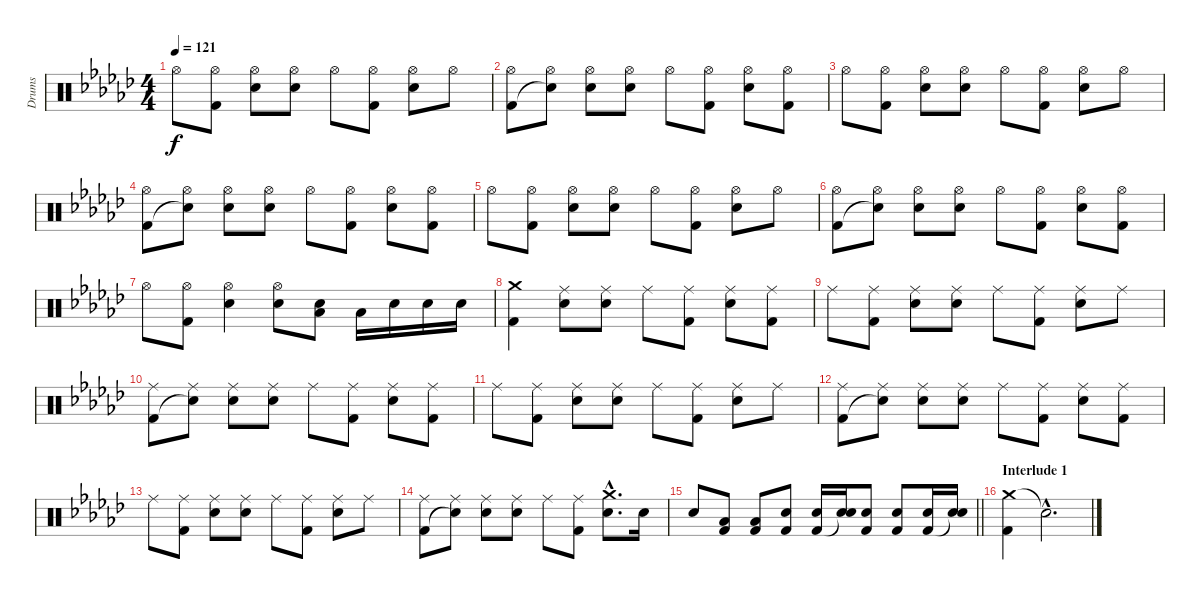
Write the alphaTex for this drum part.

\track ("Drums" "Drums") {instrument percussion}
\staff {score}
\articulation defaults
\ts (4 4)
\tempo 121
\clef neutral
\ks ebminor "Hi-Hat (open)".8{dy f}
("Hi-Hat (open)" "Kick (hit) 2").8 ("Hi-Hat (open)" "Electric Snare (hit)").8 ("Hi-Hat (open)" "Electric Snare (hit)").8 "Hi-Hat (open)".8 ("Hi-Hat (open)" "Kick (hit) 2").8 ("Hi-Hat (open)" "Electric Snare (hit)").8 "Hi-Hat (open)".8 |
("Hi-Hat (open)" "Kick (hit) 2").8 ("Hi-Hat (open)" "Snare (hit)"{t}).8 ("Hi-Hat (open)" "Electric Snare (hit)").8 ("Hi-Hat (open)" "Electric Snare (hit)").8 "Hi-Hat (open)".8 ("Hi-Hat (open)" "Kick (hit) 2").8 ("Hi-Hat (open)" "Electric Snare (hit)").8 ("Hi-Hat (open)" "Kick (hit) 2").8 |
"Hi-Hat (open)".8 ("Hi-Hat (open)" "Kick (hit) 2").8 ("Hi-Hat (open)" "Electric Snare (hit)").8 ("Hi-Hat (open)" "Electric Snare (hit)").8 "Hi-Hat (open)".8 ("Hi-Hat (open)" "Kick (hit) 2").8 ("Hi-Hat (open)" "Electric Snare (hit)").8 "Hi-Hat (open)".8 |
("Hi-Hat (open)" "Kick (hit) 2").8 ("Hi-Hat (open)" "Snare (hit)"{t}).8 ("Hi-Hat (open)" "Electric Snare (hit)").8 ("Hi-Hat (open)" "Electric Snare (hit)").8 "Hi-Hat (open)".8 ("Hi-Hat (open)" "Kick (hit) 2").8 ("Hi-Hat (open)" "Electric Snare (hit)").8 ("Hi-Hat (open)" "Kick (hit) 2").8 |
"Hi-Hat (open)".8 ("Hi-Hat (open)" "Kick (hit) 2").8 ("Hi-Hat (open)" "Electric Snare (hit)").8 ("Hi-Hat (open)" "Electric Snare (hit)").8 "Hi-Hat (open)".8 ("Hi-Hat (open)" "Kick (hit) 2").8 ("Hi-Hat (open)" "Electric Snare (hit)").8 "Hi-Hat (open)".8 |
("Hi-Hat (open)" "Kick (hit) 2").8 ("Hi-Hat (open)" "Snare (hit)"{t}).8 ("Hi-Hat (open)" "Electric Snare (hit)").8 ("Hi-Hat (open)" "Electric Snare (hit)").8 "Hi-Hat (open)".8 ("Hi-Hat (open)" "Kick (hit) 2").8 ("Hi-Hat (open)" "Electric Snare (hit)").8 ("Hi-Hat (open)" "Kick (hit) 2").8 |
"Hi-Hat (open)".8 ("Hi-Hat (open)" "Kick (hit) 2").8 ("Hi-Hat (open)" "Electric Snare (hit)").4 ("Hi-Hat (open)" "Electric Snare (hit)").8 ("Electric Snare (hit)" "Low Tom (hit)").8 "Low Floor Tom (hit)".16 "Electric Snare (hit)".16 "Electric Snare (hit)".16 "Electric Snare (hit)".16 |
("Crash medium (hit)" "Kick (hit) 2").4 ("Ride (middle)" "Electric Snare (hit)").8 ("Ride (middle)" "Electric Snare (hit)").8 "Ride (middle)".8 ("Ride (middle)" "Kick (hit) 2").8 ("Ride (middle)" "Electric Snare (hit)").8 ("Ride (middle)" "Kick (hit) 2").8 |
"Ride (middle)".8 ("Ride (middle)" "Kick (hit) 2").8 ("Ride (middle)" "Electric Snare (hit)").8 ("Ride (middle)" "Electric Snare (hit)").8 "Ride (middle)".8 ("Ride (middle)" "Kick (hit) 2").8 ("Ride (middle)" "Electric Snare (hit)").8 "Ride (middle)".8 |
("Ride (middle)" "Kick (hit) 2").8 ("Ride (middle)" "Snare (hit)"{t}).8 ("Ride (middle)" "Electric Snare (hit)").8 ("Ride (middle)" "Electric Snare (hit)").8 "Ride (middle)".8 ("Ride (middle)" "Kick (hit) 2").8 ("Ride (middle)" "Electric Snare (hit)").8 ("Ride (middle)" "Kick (hit) 2").8 |
"Ride (middle)".8 ("Ride (middle)" "Kick (hit) 2").8 ("Ride (middle)" "Electric Snare (hit)").8 ("Ride (middle)" "Electric Snare (hit)").8 "Ride (middle)".8 ("Ride (middle)" "Kick (hit) 2").8 ("Ride (middle)" "Electric Snare (hit)").8 "Ride (middle)".8 |
("Ride (middle)" "Kick (hit) 2").8 ("Ride (middle)" "Snare (hit)"{t}).8 ("Ride (middle)" "Electric Snare (hit)").8 ("Ride (middle)" "Electric Snare (hit)").8 "Ride (middle)".8 ("Ride (middle)" "Kick (hit) 2").8 ("Ride (middle)" "Electric Snare (hit)").8 ("Ride (middle)" "Kick (hit) 2").8 |
"Ride (middle)".8 ("Ride (middle)" "Kick (hit) 2").8 ("Ride (middle)" "Electric Snare (hit)").8 ("Ride (middle)" "Electric Snare (hit)").8 "Ride (middle)".8 ("Ride (middle)" "Kick (hit) 2").8 ("Ride (middle)" "Electric Snare (hit)").8 "Ride (middle)".8 |
("Ride (middle)" "Kick (hit) 2").8 ("Ride (middle)" "Snare (hit)"{t}).8 ("Ride (middle)" "Electric Snare (hit)").8 ("Ride (middle)" "Electric Snare (hit)").8 "Ride (middle)".8 ("Ride (middle)" "Kick (hit) 2").8 ("Crash medium (hit)"{hac} "Electric Snare (hit)"{hac}).8{d} "Electric Snare (hit)".16 |
\barLineRight lightlight "Electric Snare (hit)".8
("Low Floor Tom (hit)" "Kick (hit) 2").8 ("Low Floor Tom (hit)" "Kick (hit) 2").8 ("Electric Snare (hit)" "Kick (hit) 2").8 ("Electric Snare (hit)" "Kick (hit) 2").16 ("Electric Snare (hit)" "Snare (hit)"{t}).16 ("Electric Snare (hit)" "Kick (hit) 2").8 ("Electric Snare (hit)" "Kick (hit) 2").8 ("Electric Snare (hit)" "Kick (hit) 2").16 ("Electric Snare (hit)" "Snare (hit)"{t}).16 |
\section ("" "Interlude 1")
("Crash medium (hit)" "Kick (hit) 2").4 "Snare (hit)"{hac t}.2{d}
